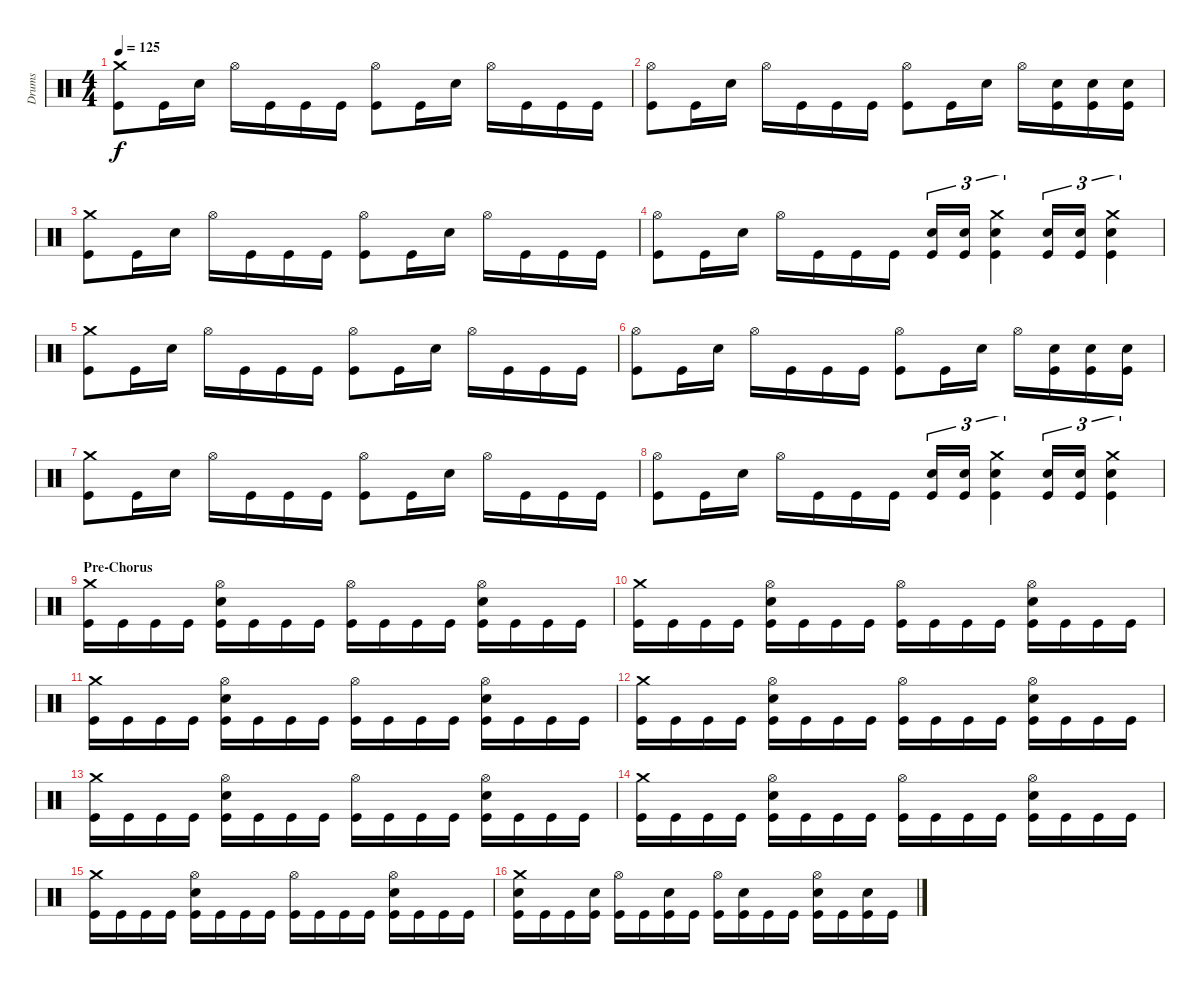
\track ("Drums" "Drums") {instrument percussion}
\staff {score}
\articulation defaults
\ts (4 4)
\tempo 125
\clef neutral
\ks c
("Crash medium (hit)" "Kick (hit)").8{dy f} "Kick (hit)".16 "Electric Snare (hit)".16 "Hi-Hat (open)".16 "Kick (hit)".16 "Kick (hit)".16 "Kick (hit)".16 ("Hi-Hat (open)" "Kick (hit)").8 "Kick (hit)".16 "Electric Snare (hit)".16 "Hi-Hat (open)".16 "Kick (hit)".16 "Kick (hit)".16 "Kick (hit)".16 |
("Hi-Hat (open)" "Kick (hit)").8 "Kick (hit)".16 "Electric Snare (hit)".16 "Hi-Hat (open)".16 "Kick (hit)".16 "Kick (hit)".16 "Kick (hit)".16 ("Hi-Hat (open)" "Kick (hit)").8 "Kick (hit)".16 "Electric Snare (hit)".16 "Hi-Hat (open)".16 ("Electric Snare (hit)" "Kick (hit)").16 ("Electric Snare (hit)" "Kick (hit)").16 ("Electric Snare (hit)" "Kick (hit)").16 |
("Crash medium (hit)" "Kick (hit)").8 "Kick (hit)".16 "Electric Snare (hit)".16 "Hi-Hat (open)".16 "Kick (hit)".16 "Kick (hit)".16 "Kick (hit)".16 ("Hi-Hat (open)" "Kick (hit)").8 "Kick (hit)".16 "Electric Snare (hit)".16 "Hi-Hat (open)".16 "Kick (hit)".16 "Kick (hit)".16 "Kick (hit)".16 |
("Hi-Hat (open)" "Kick (hit)").8 "Kick (hit)".16 "Electric Snare (hit)".16 "Hi-Hat (open)".16 "Kick (hit)".16 "Kick (hit)".16 "Kick (hit)".16 ("Electric Snare (hit)" "Kick (hit)").16{tu (3 2)} ("Electric Snare (hit)" "Kick (hit)").16{tu (3 2)} ("Crash medium (hit)" "Electric Snare (hit)" "Kick (hit)").4{tu (3 2)} ("Electric Snare (hit)" "Kick (hit)").16{tu (3 2)} ("Electric Snare (hit)" "Kick (hit)").16{tu (3 2)} ("Crash medium (hit)" "Electric Snare (hit)" "Kick (hit)").4{tu (3 2)} |
("Crash medium (hit)" "Kick (hit)").8 "Kick (hit)".16 "Electric Snare (hit)".16 "Hi-Hat (open)".16 "Kick (hit)".16 "Kick (hit)".16 "Kick (hit)".16 ("Hi-Hat (open)" "Kick (hit)").8 "Kick (hit)".16 "Electric Snare (hit)".16 "Hi-Hat (open)".16 "Kick (hit)".16 "Kick (hit)".16 "Kick (hit)".16 |
("Hi-Hat (open)" "Kick (hit)").8 "Kick (hit)".16 "Electric Snare (hit)".16 "Hi-Hat (open)".16 "Kick (hit)".16 "Kick (hit)".16 "Kick (hit)".16 ("Hi-Hat (open)" "Kick (hit)").8 "Kick (hit)".16 "Electric Snare (hit)".16 "Hi-Hat (open)".16 ("Electric Snare (hit)" "Kick (hit)").16 ("Electric Snare (hit)" "Kick (hit)").16 ("Electric Snare (hit)" "Kick (hit)").16 |
("Crash medium (hit)" "Kick (hit)").8 "Kick (hit)".16 "Electric Snare (hit)".16 "Hi-Hat (open)".16 "Kick (hit)".16 "Kick (hit)".16 "Kick (hit)".16 ("Hi-Hat (open)" "Kick (hit)").8 "Kick (hit)".16 "Electric Snare (hit)".16 "Hi-Hat (open)".16 "Kick (hit)".16 "Kick (hit)".16 "Kick (hit)".16 |
("Hi-Hat (open)" "Kick (hit)").8 "Kick (hit)".16 "Electric Snare (hit)".16 "Hi-Hat (open)".16 "Kick (hit)".16 "Kick (hit)".16 "Kick (hit)".16 ("Electric Snare (hit)" "Kick (hit)").16{tu (3 2)} ("Electric Snare (hit)" "Kick (hit)").16{tu (3 2)} ("Crash medium (hit)" "Electric Snare (hit)" "Kick (hit)").4{tu (3 2)} ("Electric Snare (hit)" "Kick (hit)").16{tu (3 2)} ("Electric Snare (hit)" "Kick (hit)").16{tu (3 2)} ("Crash medium (hit)" "Electric Snare (hit)" "Kick (hit)").4{tu (3 2)} |
\section ("" "Pre-Chorus")
("Crash medium (hit)" "Kick (hit)").16 "Kick (hit)".16 "Kick (hit)".16 "Kick (hit)".16 ("Hi-Hat (open)" "Electric Snare (hit)" "Kick (hit)").16 "Kick (hit)".16 "Kick (hit)".16 "Kick (hit)".16 ("Hi-Hat (open)" "Kick (hit)").16 "Kick (hit)".16 "Kick (hit)".16 "Kick (hit)".16 ("Hi-Hat (open)" "Electric Snare (hit)" "Kick (hit)").16 "Kick (hit)".16 "Kick (hit)".16 "Kick (hit)".16 |
("Crash medium (hit)" "Kick (hit)").16 "Kick (hit)".16 "Kick (hit)".16 "Kick (hit)".16 ("Hi-Hat (open)" "Electric Snare (hit)" "Kick (hit)").16 "Kick (hit)".16 "Kick (hit)".16 "Kick (hit)".16 ("Hi-Hat (open)" "Kick (hit)").16 "Kick (hit)".16 "Kick (hit)".16 "Kick (hit)".16 ("Hi-Hat (open)" "Electric Snare (hit)" "Kick (hit)").16 "Kick (hit)".16 "Kick (hit)".16 "Kick (hit)".16 |
("Crash medium (hit)" "Kick (hit)").16 "Kick (hit)".16 "Kick (hit)".16 "Kick (hit)".16 ("Hi-Hat (open)" "Electric Snare (hit)" "Kick (hit)").16 "Kick (hit)".16 "Kick (hit)".16 "Kick (hit)".16 ("Hi-Hat (open)" "Kick (hit)").16 "Kick (hit)".16 "Kick (hit)".16 "Kick (hit)".16 ("Hi-Hat (open)" "Electric Snare (hit)" "Kick (hit)").16 "Kick (hit)".16 "Kick (hit)".16 "Kick (hit)".16 |
("Crash medium (hit)" "Kick (hit)").16 "Kick (hit)".16 "Kick (hit)".16 "Kick (hit)".16 ("Hi-Hat (open)" "Electric Snare (hit)" "Kick (hit)").16 "Kick (hit)".16 "Kick (hit)".16 "Kick (hit)".16 ("Hi-Hat (open)" "Kick (hit)").16 "Kick (hit)".16 "Kick (hit)".16 "Kick (hit)".16 ("Hi-Hat (open)" "Electric Snare (hit)" "Kick (hit)").16 "Kick (hit)".16 "Kick (hit)".16 "Kick (hit)".16 |
("Crash medium (hit)" "Kick (hit)").16 "Kick (hit)".16 "Kick (hit)".16 "Kick (hit)".16 ("Hi-Hat (open)" "Electric Snare (hit)" "Kick (hit)").16 "Kick (hit)".16 "Kick (hit)".16 "Kick (hit)".16 ("Hi-Hat (open)" "Kick (hit)").16 "Kick (hit)".16 "Kick (hit)".16 "Kick (hit)".16 ("Hi-Hat (open)" "Electric Snare (hit)" "Kick (hit)").16 "Kick (hit)".16 "Kick (hit)".16 "Kick (hit)".16 |
("Crash medium (hit)" "Kick (hit)").16 "Kick (hit)".16 "Kick (hit)".16 "Kick (hit)".16 ("Hi-Hat (open)" "Electric Snare (hit)" "Kick (hit)").16 "Kick (hit)".16 "Kick (hit)".16 "Kick (hit)".16 ("Hi-Hat (open)" "Kick (hit)").16 "Kick (hit)".16 "Kick (hit)".16 "Kick (hit)".16 ("Hi-Hat (open)" "Electric Snare (hit)" "Kick (hit)").16 "Kick (hit)".16 "Kick (hit)".16 "Kick (hit)".16 |
("Crash medium (hit)" "Kick (hit)").16 "Kick (hit)".16 "Kick (hit)".16 "Kick (hit)".16 ("Hi-Hat (open)" "Electric Snare (hit)" "Kick (hit)").16 "Kick (hit)".16 "Kick (hit)".16 "Kick (hit)".16 ("Hi-Hat (open)" "Kick (hit)").16 "Kick (hit)".16 "Kick (hit)".16 "Kick (hit)".16 ("Hi-Hat (open)" "Electric Snare (hit)" "Kick (hit)").16 "Kick (hit)".16 "Kick (hit)".16 "Kick (hit)".16 |
("Crash medium (hit)" "Electric Snare (hit)" "Kick (hit)").16 "Kick (hit)".16 "Kick (hit)".16 ("Electric Snare (hit)" "Kick (hit)").16 ("Hi-Hat (open)" "Kick (hit)").16 "Kick (hit)".16 ("Electric Snare (hit)" "Kick (hit)").16 "Kick (hit)".16 ("Hi-Hat (open)" "Kick (hit)").16 ("Electric Snare (hit)" "Kick (hit)").16 "Kick (hit)".16 "Kick (hit)".16 ("Hi-Hat (open)" "Electric Snare (hit)" "Kick (hit)").16 "Kick (hit)".16 ("Electric Snare (hit)" "Kick (hit)").16 "Kick (hit)".16
